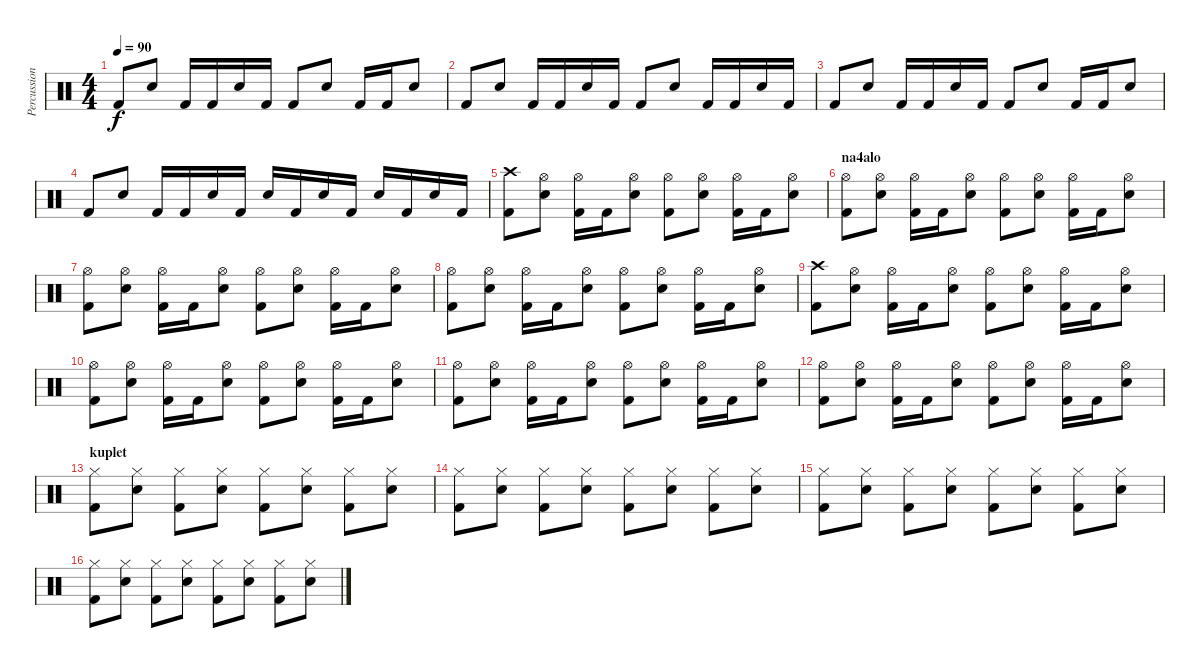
\track ("Percussion" "Percussion") {instrument percussion}
\staff {score}
\articulation defaults
\ts (4 4)
\tempo 90
\clef neutral
\ks c "Kick (hit) 2".8{dy f} "Snare (hit) 2".8 "Kick (hit) 2".16 "Kick (hit) 2".16 "Snare (hit) 2".16 "Kick (hit) 2".16 "Kick (hit) 2".8 "Snare (hit) 2".8 "Kick (hit) 2".16 "Kick (hit) 2".16 "Snare (hit) 2".8
|
"Kick (hit) 2".8 "Snare (hit) 2".8 "Kick (hit) 2".16 "Kick (hit) 2".16 "Snare (hit) 2".16 "Kick (hit) 2".16 "Kick (hit) 2".8 "Snare (hit) 2".8 "Kick (hit) 2".16 "Kick (hit) 2".16 "Snare (hit) 2".16 "Kick (hit) 2".16 |
"Kick (hit) 2".8 "Snare (hit) 2".8 "Kick (hit) 2".16 "Kick (hit) 2".16 "Snare (hit) 2".16 "Kick (hit) 2".16 "Kick (hit) 2".8 "Snare (hit) 2".8 "Kick (hit) 2".16 "Kick (hit) 2".16 "Snare (hit) 2".8 |
"Kick (hit) 2".8 "Snare (hit) 2".8 "Kick (hit) 2".16 "Kick (hit) 2".16 "Snare (hit) 2".16 "Kick (hit) 2".16 "Snare (hit) 2".16 "Kick (hit) 2".16 "Snare (hit) 2".16 "Kick (hit) 2".16 "Snare (hit) 2".16 "Kick (hit) 2".16 "Snare (hit) 2".16 "Kick (hit) 2".16 |
("Kick (hit) 2" "Crash high (hit)").8 ("Snare (hit) 2" "Hi-Hat (open)").8 ("Kick (hit) 2" "Hi-Hat (open)").16 "Kick (hit) 2".16 ("Snare (hit) 2" "Hi-Hat (open)").8 ("Kick (hit) 2" "Hi-Hat (open)").8 ("Snare (hit) 2" "Hi-Hat (open)").8 ("Kick (hit) 2" "Hi-Hat (open)").16 "Kick (hit) 2".16 ("Snare (hit) 2" "Hi-Hat (open)").8 |
\section ("" "na4alo")
("Kick (hit) 2" "Hi-Hat (open)").8 ("Snare (hit) 2" "Hi-Hat (open)").8 ("Kick (hit) 2" "Hi-Hat (open)").16 "Kick (hit) 2".16 ("Snare (hit) 2" "Hi-Hat (open)").8 ("Kick (hit) 2" "Hi-Hat (open)").8 ("Snare (hit) 2" "Hi-Hat (open)").8 ("Kick (hit) 2" "Hi-Hat (open)").16 "Kick (hit) 2".16 ("Snare (hit) 2" "Hi-Hat (open)").8 |
("Kick (hit) 2" "Hi-Hat (open)").8 ("Snare (hit) 2" "Hi-Hat (open)").8 ("Kick (hit) 2" "Hi-Hat (open)").16 "Kick (hit) 2".16 ("Snare (hit) 2" "Hi-Hat (open)").8 ("Kick (hit) 2" "Hi-Hat (open)").8 ("Snare (hit) 2" "Hi-Hat (open)").8 ("Kick (hit) 2" "Hi-Hat (open)").16 "Kick (hit) 2".16 ("Snare (hit) 2" "Hi-Hat (open)").8 |
("Kick (hit) 2" "Hi-Hat (open)").8 ("Snare (hit) 2" "Hi-Hat (open)").8 ("Kick (hit) 2" "Hi-Hat (open)").16 "Kick (hit) 2".16 ("Snare (hit) 2" "Hi-Hat (open)").8 ("Kick (hit) 2" "Hi-Hat (open)").8 ("Snare (hit) 2" "Hi-Hat (open)").8 ("Kick (hit) 2" "Hi-Hat (open)").16 "Kick (hit) 2".16 ("Snare (hit) 2" "Hi-Hat (open)").8 |
("Kick (hit) 2" "Crash high (hit)").8 ("Snare (hit) 2" "Hi-Hat (open)").8 ("Kick (hit) 2" "Hi-Hat (open)").16 "Kick (hit) 2".16 ("Snare (hit) 2" "Hi-Hat (open)").8 ("Kick (hit) 2" "Hi-Hat (open)").8 ("Snare (hit) 2" "Hi-Hat (open)").8 ("Kick (hit) 2" "Hi-Hat (open)").16 "Kick (hit) 2".16 ("Snare (hit) 2" "Hi-Hat (open)").8 |
("Kick (hit) 2" "Hi-Hat (open)").8 ("Snare (hit) 2" "Hi-Hat (open)").8 ("Kick (hit) 2" "Hi-Hat (open)").16 "Kick (hit) 2".16 ("Snare (hit) 2" "Hi-Hat (open)").8 ("Kick (hit) 2" "Hi-Hat (open)").8 ("Snare (hit) 2" "Hi-Hat (open)").8 ("Kick (hit) 2" "Hi-Hat (open)").16 "Kick (hit) 2".16 ("Snare (hit) 2" "Hi-Hat (open)").8 |
("Kick (hit) 2" "Hi-Hat (open)").8 ("Snare (hit) 2" "Hi-Hat (open)").8 ("Kick (hit) 2" "Hi-Hat (open)").16 "Kick (hit) 2".16 ("Snare (hit) 2" "Hi-Hat (open)").8 ("Kick (hit) 2" "Hi-Hat (open)").8 ("Snare (hit) 2" "Hi-Hat (open)").8 ("Kick (hit) 2" "Hi-Hat (open)").16 "Kick (hit) 2".16 ("Snare (hit) 2" "Hi-Hat (open)").8 |
\section ("" "")
("Kick (hit) 2" "Hi-Hat (open)").8 ("Snare (hit) 2" "Hi-Hat (open)").8 ("Kick (hit) 2" "Hi-Hat (open)").16 "Kick (hit) 2".16 ("Snare (hit) 2" "Hi-Hat (open)").8 ("Kick (hit) 2" "Hi-Hat (open)").8 ("Snare (hit) 2" "Hi-Hat (open)").8 ("Kick (hit) 2" "Hi-Hat (open)").16 "Kick (hit) 2".16 ("Snare (hit) 2" "Hi-Hat (open)").8 |
\section ("" "kuplet")
("Kick (hit) 2" "Hi-Hat (closed)").8 ("Snare (hit) 2" "Hi-Hat (closed)").8 ("Kick (hit) 2" "Hi-Hat (closed)").8 ("Snare (hit) 2" "Hi-Hat (closed)").8 ("Kick (hit) 2" "Hi-Hat (closed)").8 ("Snare (hit) 2" "Hi-Hat (closed)").8 ("Kick (hit) 2" "Hi-Hat (closed)").8 ("Snare (hit) 2" "Hi-Hat (closed)").8 |
("Kick (hit) 2" "Hi-Hat (closed)").8 ("Snare (hit) 2" "Hi-Hat (closed)").8 ("Kick (hit) 2" "Hi-Hat (closed)").8 ("Snare (hit) 2" "Hi-Hat (closed)").8 ("Kick (hit) 2" "Hi-Hat (closed)").8 ("Snare (hit) 2" "Hi-Hat (closed)").8 ("Kick (hit) 2" "Hi-Hat (closed)").8 ("Snare (hit) 2" "Hi-Hat (closed)").8 |
("Kick (hit) 2" "Hi-Hat (closed)").8 ("Snare (hit) 2" "Hi-Hat (closed)").8 ("Kick (hit) 2" "Hi-Hat (closed)").8 ("Snare (hit) 2" "Hi-Hat (closed)").8 ("Kick (hit) 2" "Hi-Hat (closed)").8 ("Snare (hit) 2" "Hi-Hat (closed)").8 ("Kick (hit) 2" "Hi-Hat (closed)").8 ("Snare (hit) 2" "Hi-Hat (closed)").8 |
("Kick (hit) 2" "Hi-Hat (closed)").8 ("Snare (hit) 2" "Hi-Hat (closed)").8 ("Kick (hit) 2" "Hi-Hat (closed)").8 ("Snare (hit) 2" "Hi-Hat (closed)").8 ("Kick (hit) 2" "Hi-Hat (closed)").8 ("Snare (hit) 2" "Hi-Hat (closed)").8 ("Kick (hit) 2" "Hi-Hat (closed)").8 ("Snare (hit) 2" "Hi-Hat (closed)").8
